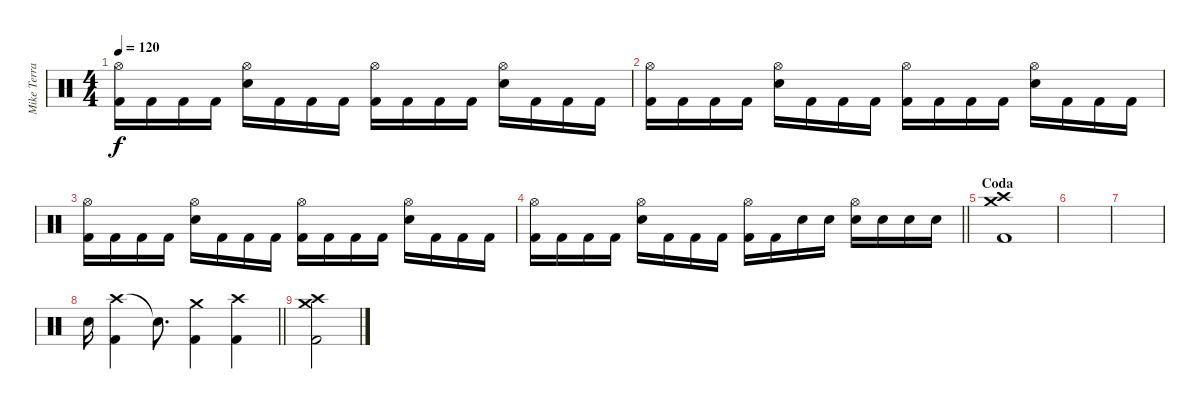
\track ("Mike Terrana" "Mike Terra") {instrument percussion}
\staff {score}
\articulation defaults
\ts (4 4)
\tempo 120
\clef neutral
\ks c
("Hi-Hat (open)" "Kick (hit) 2").16{dy f} "Kick (hit) 2".16 "Kick (hit) 2".16 "Kick (hit) 2".16 ("Hi-Hat (open)" "Snare (hit) 2").16 "Kick (hit) 2".16 "Kick (hit) 2".16 "Kick (hit) 2".16 ("Hi-Hat (open)" "Kick (hit) 2").16 "Kick (hit) 2".16 "Kick (hit) 2".16 "Kick (hit) 2".16 ("Hi-Hat (open)" "Snare (hit) 2").16 "Kick (hit) 2".16 "Kick (hit) 2".16 "Kick (hit) 2".16 |
("Hi-Hat (open)" "Kick (hit) 2").16 "Kick (hit) 2".16 "Kick (hit) 2".16 "Kick (hit) 2".16 ("Hi-Hat (open)" "Snare (hit) 2").16 "Kick (hit) 2".16 "Kick (hit) 2".16 "Kick (hit) 2".16 ("Hi-Hat (open)" "Kick (hit) 2").16 "Kick (hit) 2".16 "Kick (hit) 2".16 "Kick (hit) 2".16 ("Hi-Hat (open)" "Snare (hit) 2").16 "Kick (hit) 2".16 "Kick (hit) 2".16 "Kick (hit) 2".16 |
("Hi-Hat (open)" "Kick (hit) 2").16 "Kick (hit) 2".16 "Kick (hit) 2".16 "Kick (hit) 2".16 ("Hi-Hat (open)" "Snare (hit) 2").16 "Kick (hit) 2".16 "Kick (hit) 2".16 "Kick (hit) 2".16 ("Hi-Hat (open)" "Kick (hit) 2").16 "Kick (hit) 2".16 "Kick (hit) 2".16 "Kick (hit) 2".16 ("Hi-Hat (open)" "Snare (hit) 2").16 "Kick (hit) 2".16 "Kick (hit) 2".16 "Kick (hit) 2".16 |
\barLineRight lightlight
("Hi-Hat (open)" "Kick (hit) 2").16 "Kick (hit) 2".16 "Kick (hit) 2".16 "Kick (hit) 2".16 ("Hi-Hat (open)" "Snare (hit) 2").16 "Kick (hit) 2".16 "Kick (hit) 2".16 "Kick (hit) 2".16 ("Hi-Hat (open)" "Kick (hit) 2").16 "Kick (hit) 2".16 "Snare (hit) 2".16 "Snare (hit) 2".16 ("Hi-Hat (open)" "Snare (hit) 2").16 "Snare (hit) 2".16 "Snare (hit) 2".16 "Snare (hit) 2".16 |
\section ("" "Coda")
("Crash high (hit)" "Crash medium (hit)" "Kick (hit) 2").1 |
|
|
\barLineRight lightlight "Snare (hit) 2".16
("Crash high (hit)" "Kick (hit) 2").4 "Snare (hit)"{t}.8{d} ("Crash medium (hit)" "Kick (hit) 2").4 ("Crash high (hit)" "Kick (hit) 2").4 |
("Crash high (hit)" "Crash medium (hit)" "Kick (hit) 2").2
